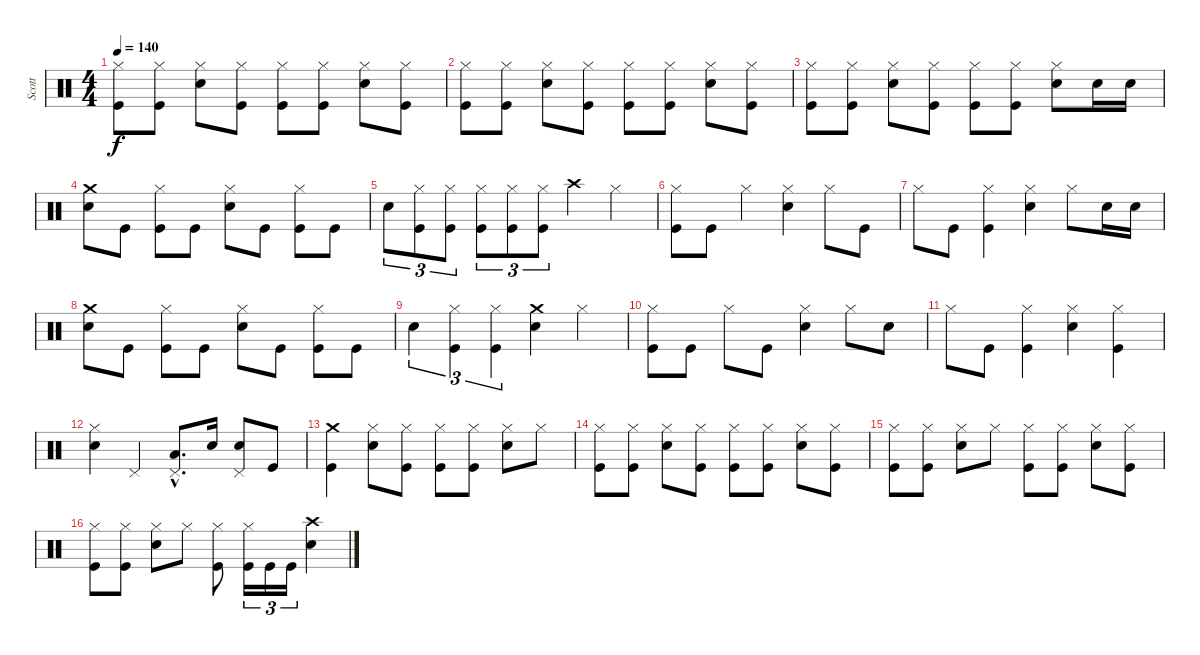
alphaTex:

\track ("Scott" "Scott") {instrument percussion}
\staff {score}
\articulation defaults
\ts (4 4)
\tempo 140
\clef neutral
\ks c
("Kick (hit)" "Hi-Hat (closed)").8{dy f} ("Kick (hit)" "Hi-Hat (closed)").8 ("Snare (hit) 2" "Hi-Hat (closed)").8 ("Kick (hit)" "Hi-Hat (closed)").8 ("Kick (hit)" "Hi-Hat (closed)").8 ("Kick (hit)" "Hi-Hat (closed)").8 ("Snare (hit) 2" "Hi-Hat (closed)").8 ("Kick (hit)" "Hi-Hat (closed)").8 |
("Kick (hit)" "Hi-Hat (closed)").8 ("Kick (hit)" "Hi-Hat (closed)").8 ("Snare (hit) 2" "Hi-Hat (closed)").8 ("Kick (hit)" "Hi-Hat (closed)").8 ("Kick (hit)" "Hi-Hat (closed)").8 ("Kick (hit)" "Hi-Hat (closed)").8 ("Snare (hit) 2" "Hi-Hat (closed)").8 ("Kick (hit)" "Hi-Hat (closed)").8 |
("Kick (hit)" "Hi-Hat (closed)").8 ("Kick (hit)" "Hi-Hat (closed)").8 ("Snare (hit) 2" "Hi-Hat (closed)").8 ("Kick (hit)" "Hi-Hat (closed)").8 ("Kick (hit)" "Hi-Hat (closed)").8 ("Kick (hit)" "Hi-Hat (closed)").8 ("Snare (hit) 2" "Hi-Hat (closed)").8 "Snare (hit) 2".16 "Snare (hit) 2".16 |
("Snare (hit) 2" "Crash medium (hit)").8 "Kick (hit)".8 ("Kick (hit)" "Hi-Hat (closed)").8 "Kick (hit)".8 ("Snare (hit) 2" "Hi-Hat (closed)").8 "Kick (hit)".8 ("Kick (hit)" "Hi-Hat (closed)").8 "Kick (hit)".8 |
"Snare (hit) 2".8{tu (3 2)} ("Kick (hit)" "Hi-Hat (closed)").8{tu (3 2)} ("Kick (hit)" "Hi-Hat (closed)").8{tu (3 2)} ("Kick (hit)" "Hi-Hat (closed)").8{tu (3 2)} ("Kick (hit)" "Hi-Hat (closed)").8{tu (3 2)} ("Kick (hit)" "Hi-Hat (closed)").8{tu (3 2)} "Crash high (hit)".4 "Hi-Hat (closed)".4 |
("Kick (hit)" "Hi-Hat (closed)").8 "Kick (hit)".8 "Hi-Hat (closed)".4 ("Snare (hit) 2" "Hi-Hat (closed)").4 "Hi-Hat (closed)".8 "Kick (hit)".8 |
"Hi-Hat (closed)".8 "Kick (hit)".8 ("Kick (hit)" "Hi-Hat (closed)").4 ("Snare (hit) 2" "Hi-Hat (closed)").4 "Hi-Hat (closed)".8 "Snare (hit) 2".16 "Snare (hit) 2".16 |
("Snare (hit) 2" "Crash medium (hit)").8 "Kick (hit)".8 ("Kick (hit)" "Hi-Hat (closed)").8 "Kick (hit)".8 ("Snare (hit) 2" "Hi-Hat (closed)").8 "Kick (hit)".8 ("Kick (hit)" "Hi-Hat (closed)").8 "Kick (hit)".8 |
"Snare (hit) 2".4{tu (3 2)} ("Kick (hit)" "Hi-Hat (closed)").4{tu (3 2)} ("Kick (hit)" "Hi-Hat (closed)").4{tu (3 2)} ("Snare (hit) 2" "Crash medium (hit)").4 "Hi-Hat (closed)".4 |
("Kick (hit)" "Hi-Hat (closed)").8 "Kick (hit)".8 "Hi-Hat (closed)".8 "Kick (hit)".8 ("Snare (hit) 2" "Hi-Hat (closed)").4 "Hi-Hat (closed)".8 "Snare (hit) 2".8 |
"Hi-Hat (closed)".8 "Kick (hit)".8 ("Kick (hit)" "Hi-Hat (closed)").4 ("Snare (hit) 2" "Hi-Hat (closed)").4 ("Kick (hit)" "Hi-Hat (closed)").4 |
("Snare (hit) 2" "Hi-Hat (closed)").4 "Pedal Hi-Hat (hit)".4 ("Low Tom (hit)"{hac} "Pedal Hi-Hat (hit)"{hac}).8{d} "Snare (hit) 2".16 ("Snare (hit) 2" "Pedal Hi-Hat (hit)").8 "Kick (hit)".8 |
("Kick (hit)" "Crash medium (hit)").4 ("Snare (hit) 2" "Hi-Hat (closed)").8 ("Kick (hit)" "Hi-Hat (closed)").8 ("Kick (hit)" "Hi-Hat (closed)").8 ("Kick (hit)" "Hi-Hat (closed)").8 ("Snare (hit) 2" "Hi-Hat (closed)").8 "Hi-Hat (closed)".8 |
("Kick (hit)" "Hi-Hat (closed)").8 ("Kick (hit)" "Hi-Hat (closed)").8 ("Snare (hit) 2" "Hi-Hat (closed)").8 ("Kick (hit)" "Hi-Hat (closed)").8 ("Kick (hit)" "Hi-Hat (closed)").8 ("Kick (hit)" "Hi-Hat (closed)").8 ("Snare (hit) 2" "Hi-Hat (closed)").8 ("Kick (hit)" "Hi-Hat (closed)").8 |
("Kick (hit)" "Hi-Hat (closed)").8 ("Kick (hit)" "Hi-Hat (closed)").8 ("Snare (hit) 2" "Hi-Hat (closed)").8 "Hi-Hat (closed)".8 ("Kick (hit)" "Hi-Hat (closed)").8 ("Kick (hit)" "Hi-Hat (closed)").8 ("Snare (hit) 2" "Hi-Hat (closed)").8 ("Kick (hit)" "Hi-Hat (closed)").8 |
("Kick (hit)" "Hi-Hat (closed)").8 ("Kick (hit)" "Hi-Hat (closed)").8 ("Snare (hit) 2" "Hi-Hat (closed)").8 "Hi-Hat (closed)".8 ("Kick (hit)" "Hi-Hat (closed)").8 ("Kick (hit)" "Hi-Hat (closed)").16{tu (3 2)} "Kick (hit)".16{tu (3 2)} "Kick (hit)".16{tu (3 2)} ("Snare (hit) 2" "Crash high (hit)").4
